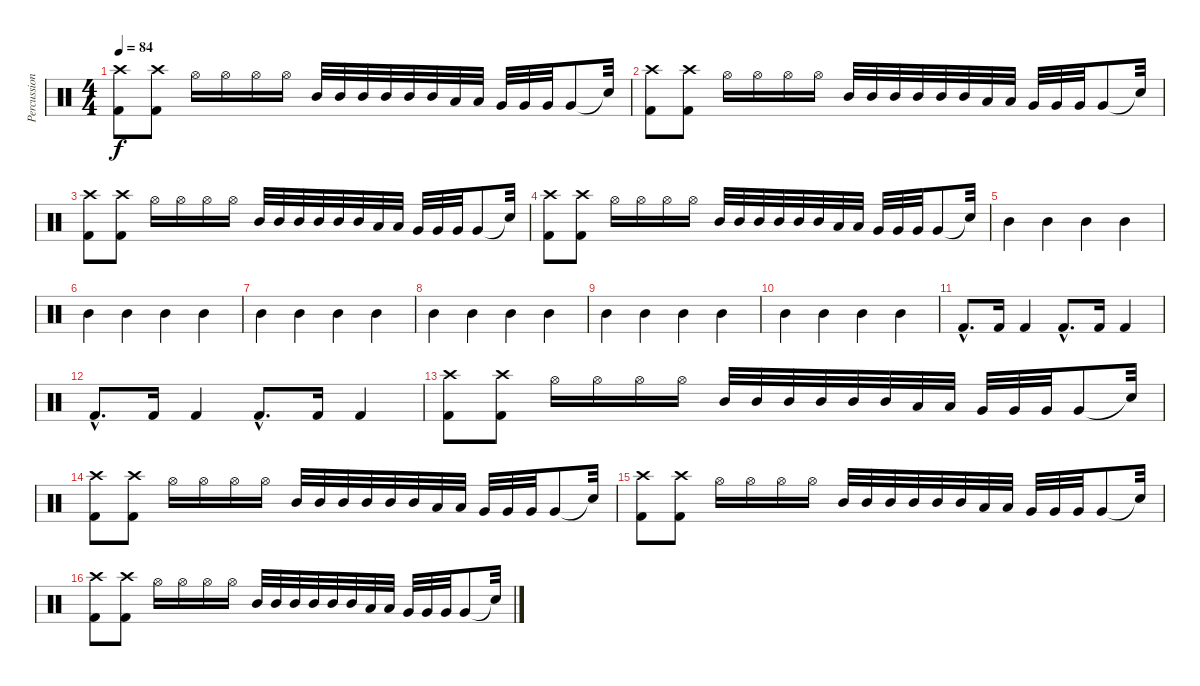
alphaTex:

\track ("Percussions" "Percussion") {instrument percussion}
\staff {score}
\articulation defaults
\ts (4 4)
\tempo 84
\clef neutral
\ks c
("Kick (hit) 2" "Crash high (hit)").8{dy f} ("Kick (hit) 2" "Crash high (hit)").8 "Hi-Hat (open)".16 "Hi-Hat (open)".16 "Hi-Hat (open)".16 "Hi-Hat (open)".16 "Mid Tom (hit)".32 "Mid Tom (hit)".32 "Mid Tom (hit)".32 "Mid Tom (hit)".32 "Mid Tom (hit)".32 "Mid Tom (hit)".32 "Low Tom (hit)".32 "Low Tom (hit)".32 "Very Low Tom (hit)".32 "Very Low Tom (hit)".32 "Very Low Tom (hit)".32 "Very Low Tom (hit)".8 "Snare (hit)"{t}.32 |
("Kick (hit) 2" "Crash high (hit)").8 ("Kick (hit) 2" "Crash high (hit)").8 "Hi-Hat (open)".16 "Hi-Hat (open)".16 "Hi-Hat (open)".16 "Hi-Hat (open)".16 "Mid Tom (hit)".32 "Mid Tom (hit)".32 "Mid Tom (hit)".32 "Mid Tom (hit)".32 "Mid Tom (hit)".32 "Mid Tom (hit)".32 "Low Tom (hit)".32 "Low Tom (hit)".32 "Very Low Tom (hit)".32 "Very Low Tom (hit)".32 "Very Low Tom (hit)".32 "Very Low Tom (hit)".8 "Snare (hit)"{t}.32 |
("Kick (hit) 2" "Crash high (hit)").8 ("Kick (hit) 2" "Crash high (hit)").8 "Hi-Hat (open)".16 "Hi-Hat (open)".16 "Hi-Hat (open)".16 "Hi-Hat (open)".16 "Mid Tom (hit)".32 "Mid Tom (hit)".32 "Mid Tom (hit)".32 "Mid Tom (hit)".32 "Mid Tom (hit)".32 "Mid Tom (hit)".32 "Low Tom (hit)".32 "Low Tom (hit)".32 "Very Low Tom (hit)".32 "Very Low Tom (hit)".32 "Very Low Tom (hit)".32 "Very Low Tom (hit)".8 "Snare (hit)"{t}.32 |
("Kick (hit) 2" "Crash high (hit)").8 ("Kick (hit) 2" "Crash high (hit)").8 "Hi-Hat (open)".16 "Hi-Hat (open)".16 "Hi-Hat (open)".16 "Hi-Hat (open)".16 "Mid Tom (hit)".32 "Mid Tom (hit)".32 "Mid Tom (hit)".32 "Mid Tom (hit)".32 "Mid Tom (hit)".32 "Mid Tom (hit)".32 "Low Tom (hit)".32 "Low Tom (hit)".32 "Very Low Tom (hit)".32 "Very Low Tom (hit)".32 "Very Low Tom (hit)".32 "Very Low Tom (hit)".8 "Snare (hit)"{t}.32 |
"Mid Tom (hit)".4 "Mid Tom (hit)".4 "Mid Tom (hit)".4 "Mid Tom (hit)".4 |
"Mid Tom (hit)".4 "Mid Tom (hit)".4 "Mid Tom (hit)".4 "Mid Tom (hit)".4 |
"Mid Tom (hit)".4 "Mid Tom (hit)".4 "Mid Tom (hit)".4 "Mid Tom (hit)".4 |
"Mid Tom (hit)".4 "Mid Tom (hit)".4 "Mid Tom (hit)".4 "Mid Tom (hit)".4 |
"Mid Tom (hit)".4 "Mid Tom (hit)".4 "Mid Tom (hit)".4 "Mid Tom (hit)".4 |
"Mid Tom (hit)".4 "Mid Tom (hit)".4 "Mid Tom (hit)".4 "Mid Tom (hit)".4 |
"Kick (hit) 2"{hac}.8{d} "Kick (hit) 2".16 "Kick (hit) 2".4 "Kick (hit) 2"{hac}.8{d} "Kick (hit) 2".16 "Kick (hit) 2".4 |
"Kick (hit) 2"{hac}.8{d} "Kick (hit) 2".16 "Kick (hit) 2".4 "Kick (hit) 2"{hac}.8{d} "Kick (hit) 2".16 "Kick (hit) 2".4 |
("Kick (hit) 2" "Crash high (hit)").8 ("Kick (hit) 2" "Crash high (hit)").8 "Hi-Hat (open)".16 "Hi-Hat (open)".16 "Hi-Hat (open)".16 "Hi-Hat (open)".16 "Mid Tom (hit)".32 "Mid Tom (hit)".32 "Mid Tom (hit)".32 "Mid Tom (hit)".32 "Mid Tom (hit)".32 "Mid Tom (hit)".32 "Low Tom (hit)".32 "Low Tom (hit)".32 "Very Low Tom (hit)".32 "Very Low Tom (hit)".32 "Very Low Tom (hit)".32 "Very Low Tom (hit)".8 "Snare (hit)"{t}.32 |
("Kick (hit) 2" "Crash high (hit)").8 ("Kick (hit) 2" "Crash high (hit)").8 "Hi-Hat (open)".16 "Hi-Hat (open)".16 "Hi-Hat (open)".16 "Hi-Hat (open)".16 "Mid Tom (hit)".32 "Mid Tom (hit)".32 "Mid Tom (hit)".32 "Mid Tom (hit)".32 "Mid Tom (hit)".32 "Mid Tom (hit)".32 "Low Tom (hit)".32 "Low Tom (hit)".32 "Very Low Tom (hit)".32 "Very Low Tom (hit)".32 "Very Low Tom (hit)".32 "Very Low Tom (hit)".8 "Snare (hit)"{t}.32 |
("Kick (hit) 2" "Crash high (hit)").8 ("Kick (hit) 2" "Crash high (hit)").8 "Hi-Hat (open)".16 "Hi-Hat (open)".16 "Hi-Hat (open)".16 "Hi-Hat (open)".16 "Mid Tom (hit)".32 "Mid Tom (hit)".32 "Mid Tom (hit)".32 "Mid Tom (hit)".32 "Mid Tom (hit)".32 "Mid Tom (hit)".32 "Low Tom (hit)".32 "Low Tom (hit)".32 "Very Low Tom (hit)".32 "Very Low Tom (hit)".32 "Very Low Tom (hit)".32 "Very Low Tom (hit)".8 "Snare (hit)"{t}.32 |
("Kick (hit) 2" "Crash high (hit)").8 ("Kick (hit) 2" "Crash high (hit)").8 "Hi-Hat (open)".16 "Hi-Hat (open)".16 "Hi-Hat (open)".16 "Hi-Hat (open)".16 "Mid Tom (hit)".32 "Mid Tom (hit)".32 "Mid Tom (hit)".32 "Mid Tom (hit)".32 "Mid Tom (hit)".32 "Mid Tom (hit)".32 "Low Tom (hit)".32 "Low Tom (hit)".32 "Very Low Tom (hit)".32 "Very Low Tom (hit)".32 "Very Low Tom (hit)".32 "Very Low Tom (hit)".8 "Snare (hit)"{t}.32
